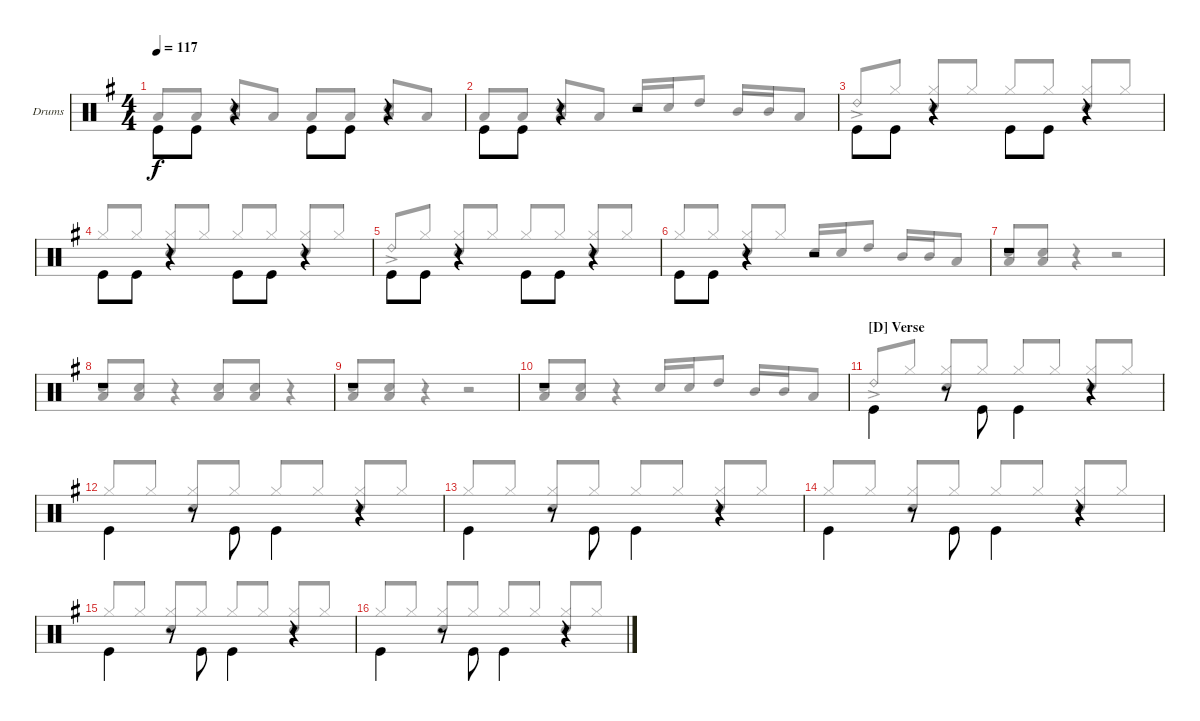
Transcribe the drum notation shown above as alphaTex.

\defaultSystemsLayout 4
\bracketExtendMode groupsimilarinstruments
\firstSystemTrackNameOrientation horizontal
\otherSystemsTrackNameOrientation horizontal
\track ("Drums" "Drums") {instrument percussion}
\staff {score}
\articulation defaults
\voice
\ts (4 4)
\tempo 117
\clef neutral
\scale
1.02648
\ks g "Kick (hit)".8{dy f beam invert} "Kick (hit)".8
r.4 "Kick (hit)".8{beam invert} "Kick (hit)".8 r.4 |
\scale
0.973518 "Kick (hit)".8{beam invert} "Kick (hit)".8 r.4 r.2 |
\scale
1.02648 "Kick (hit)".8{beam invert} "Kick (hit)".8 r.4 "Kick (hit)".8{beam invert} "Kick (hit)".8 r.4 |
\scale
0.973518 "Kick (hit)".8{beam invert} "Kick (hit)".8 r.4 "Kick (hit)".8{beam invert} "Kick (hit)".8 r.4 |
\scale
1.02648 "Kick (hit)".8{beam invert} "Kick (hit)".8 r.4 "Kick (hit)".8{beam invert} "Kick (hit)".8 r.4 |
\scale
0.973518 "Kick (hit)".8{beam invert} "Kick (hit)".8 r.4 r.2 |
\scale
1.02648 r.1 |
\scale
0.973518 r.1 |
\scale
1.02648 r.1 |
\scale
0.973518 r.1 |
\section ("D" "Verse")
\scale
1.02648 "Kick (hit)".4{beam invert} r.8 "Kick (hit)".8{beam invert} "Kick (hit)".4{beam invert} r.4 |
\scale
0.973518 "Kick (hit)".4{beam invert} r.8 "Kick (hit)".8{beam invert} "Kick (hit)".4{beam invert} r.4 |
\scale
1.02648 "Kick (hit)".4{beam invert} r.8 "Kick (hit)".8{beam invert} "Kick (hit)".4{beam invert} r.4 |
\scale
0.973518 "Kick (hit)".4{beam invert} r.8 "Kick (hit)".8{beam invert} "Kick (hit)".4{beam invert} r.4 |
\scale
1.02648 "Kick (hit)".4{beam invert} r.8 "Kick (hit)".8{beam invert} "Kick (hit)".4{beam invert} r.4 |
\scale
0.973518 "Kick (hit)".4{beam invert} r.8 "Kick (hit)".8{beam invert} "Kick (hit)".4{beam invert} r.4
\voice
\clef neutral
\ottava regular
\simile none
\scale
1.02648
\ks g "Low Tom (hit)".8{dy f beam invert} "Low Tom (hit)".8
("Low Tom (hit)" "Snare (hit) 2").8{beam invert} "Low Tom (hit)".8 "Low Tom (hit)".8{beam invert} "Low Tom (hit)".8 ("Low Tom (hit)" "Snare (hit) 2").8{beam invert} "Low Tom (hit)".8 |
\scale
0.973518 "Low Tom (hit)".8{beam invert} "Low Tom (hit)".8 ("Low Tom (hit)" "Snare (hit) 2").8{beam invert} "Low Tom (hit)".8 "Snare (hit) 2".16{beam invert} "Snare (hit) 2".16 "High Tom (hit)".8 "Mid Tom (hit)".16{beam invert} "Mid Tom (hit)".16 "Low Tom (hit)".8 |
\scale
1.02648 "Ride (bell) 2"{ac}.8{beam invert} "Hi-Hat (closed)".8 ("Hi-Hat (closed)" "Snare (hit) 2").8{beam invert} "Hi-Hat (closed)".8 "Hi-Hat (closed)".8{beam invert} "Hi-Hat (closed)".8 ("Hi-Hat (closed)" "Snare (hit) 2").8{beam invert} "Hi-Hat (closed)".8 |
\scale
0.973518 "Hi-Hat (closed)".8{beam invert} "Hi-Hat (closed)".8 ("Hi-Hat (closed)" "Snare (hit) 2").8{beam invert} "Hi-Hat (closed)".8 "Hi-Hat (closed)".8{beam invert} "Hi-Hat (closed)".8 ("Hi-Hat (closed)" "Snare (hit) 2").8{beam invert} "Hi-Hat (closed)".8 |
\scale
1.02648 "Ride (bell) 2"{ac}.8{beam invert} "Hi-Hat (closed)".8 ("Hi-Hat (closed)" "Snare (hit) 2").8{beam invert} "Hi-Hat (closed)".8 "Hi-Hat (closed)".8{beam invert} "Hi-Hat (closed)".8 ("Hi-Hat (closed)" "Snare (hit) 2").8{beam invert} "Hi-Hat (closed)".8 |
\scale
0.973518 "Hi-Hat (closed)".8{beam invert} "Hi-Hat (closed)".8 ("Hi-Hat (closed)" "Snare (hit) 2").8{beam invert} "Hi-Hat (closed)".8 "Snare (hit) 2".16{beam invert} "Snare (hit) 2".16 "High Tom (hit)".8 "Mid Tom (hit)".16{beam invert} "Mid Tom (hit)".16 "Low Tom (hit)".8 |
\scale
1.02648 ("Low Tom (hit)" "Snare (hit) 2").8{beam invert} ("Low Tom (hit)" "Snare (hit) 2").8 r.4 r.2 |
\scale
0.973518 ("Low Tom (hit)" "Snare (hit) 2").8{beam invert} ("Low Tom (hit)" "Snare (hit) 2").8 r.4{beam invert} ("Low Tom (hit)" "Snare (hit) 2").8{beam invert} ("Low Tom (hit)" "Snare (hit) 2").8 r.4{beam invert} |
\scale
1.02648 ("Low Tom (hit)" "Snare (hit) 2").8{beam invert} ("Low Tom (hit)" "Snare (hit) 2").8 r.4 r.2 |
\scale
0.973518 ("Low Tom (hit)" "Snare (hit) 2").8{beam invert} ("Low Tom (hit)" "Snare (hit) 2").8 r.4 "Snare (hit) 2".16{beam invert} "Snare (hit) 2".16 "High Tom (hit)".8 "Mid Tom (hit)".16{beam invert} "Mid Tom (hit)".16 "Low Tom (hit)".8 |
\scale
1.02648 "Ride (bell) 2"{ac}.8{beam invert} "Hi-Hat (closed)".8 ("Hi-Hat (closed)" "Snare (hit) 2").8{beam invert} "Hi-Hat (closed)".8 "Hi-Hat (closed)".8{beam invert} "Hi-Hat (closed)".8 ("Hi-Hat (closed)" "Snare (hit) 2").8{beam invert} "Hi-Hat (closed)".8 |
\scale
0.973518 "Hi-Hat (closed)".8{beam invert} "Hi-Hat (closed)".8 ("Hi-Hat (closed)" "Snare (hit) 2").8{beam invert} "Hi-Hat (closed)".8 "Hi-Hat (closed)".8{beam invert} "Hi-Hat (closed)".8 ("Hi-Hat (closed)" "Snare (hit) 2").8{beam invert} "Hi-Hat (closed)".8 |
\scale
1.02648 "Hi-Hat (closed)".8{beam invert} "Hi-Hat (closed)".8 ("Hi-Hat (closed)" "Snare (hit) 2").8{beam invert} "Hi-Hat (closed)".8 "Hi-Hat (closed)".8{beam invert} "Hi-Hat (closed)".8 ("Hi-Hat (closed)" "Snare (hit) 2").8{beam invert} "Hi-Hat (closed)".8 |
\scale
0.973518 "Hi-Hat (closed)".8{beam invert} "Hi-Hat (closed)".8 ("Hi-Hat (closed)" "Snare (hit) 2").8{beam invert} "Hi-Hat (closed)".8 "Hi-Hat (closed)".8{beam invert} "Hi-Hat (closed)".8 ("Hi-Hat (closed)" "Snare (hit) 2").8{beam invert} "Hi-Hat (closed)".8 |
\scale
1.02648 "Hi-Hat (closed)".8{beam invert} "Hi-Hat (closed)".8 ("Hi-Hat (closed)" "Snare (hit) 2").8{beam invert} "Hi-Hat (closed)".8 "Hi-Hat (closed)".8{beam invert} "Hi-Hat (closed)".8 ("Hi-Hat (closed)" "Snare (hit) 2").8{beam invert} "Hi-Hat (closed)".8 |
\scale
0.973518 "Hi-Hat (closed)".8{beam invert} "Hi-Hat (closed)".8 ("Hi-Hat (closed)" "Snare (hit) 2").8{beam invert} "Hi-Hat (closed)".8 "Hi-Hat (closed)".8{beam invert} "Hi-Hat (closed)".8 ("Hi-Hat (closed)" "Snare (hit) 2").8{beam invert} "Hi-Hat (closed)".8
